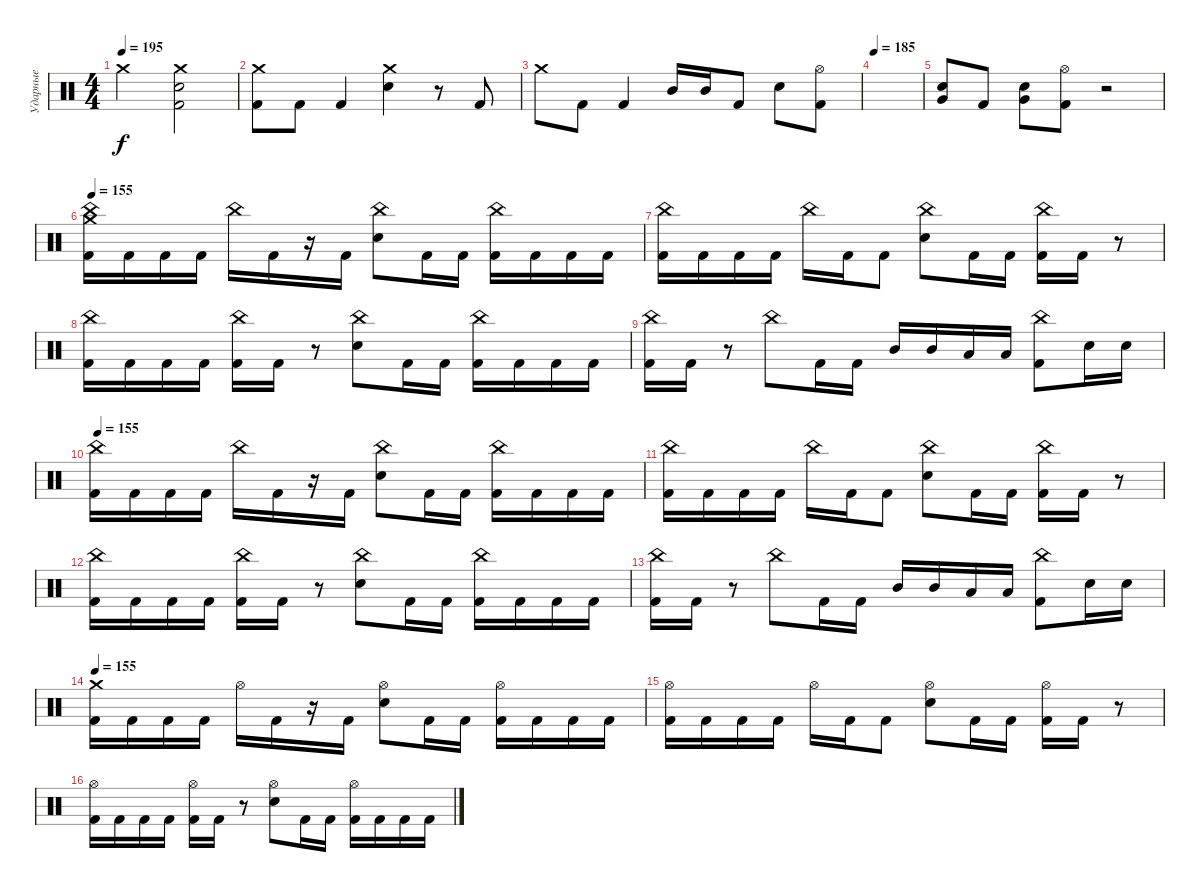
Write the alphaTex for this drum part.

\track ("Ударные" "Ударные") {instrument percussion}
\staff {score}
\articulation defaults
\ts (4 4)
\tempo 195
\clef neutral
\ks c "Crash medium (hit)".2{dy f}
("Crash medium (hit)" "Electric Snare (hit)" "Kick (hit) 2").2 |
("Crash medium (hit)" "Kick (hit) 2").8 "Kick (hit) 2".8 "Kick (hit) 2".4 ("Crash medium (hit)" "Electric Snare (hit)").4 r.8 "Kick (hit) 2".8 |
"Crash medium (hit)".8 "Kick (hit) 2".8 "Kick (hit) 2".4 "Mid Tom (hit)".16 "Mid Tom (hit)".16 "Kick (hit) 2".8 "Electric Snare (hit)".8 ("Hi-Hat (open)" "Kick (hit) 2").8 |
\tempo 185
|
("Electric Snare (hit)" "Very Low Tom (hit)").8 "Kick (hit) 2".8 ("Electric Snare (hit)" "Very Low Tom (hit)").8 ("Hi-Hat (open)" "Kick (hit) 2").8 r.2 |
\tempo 155
("Crash medium (hit)" "China (hit)" "Kick (hit) 2").16 "Kick (hit) 2".16 "Kick (hit) 2".16 "Kick (hit) 2".16 "China (hit)".16 "Kick (hit) 2".16 r.16 "Kick (hit) 2".16 ("China (hit)" "Electric Snare (hit)").8 "Kick (hit) 2".16 "Kick (hit) 2".16 ("China (hit)" "Kick (hit) 2").16 "Kick (hit) 2".16 "Kick (hit) 2".16 "Kick (hit) 2".16 |
("China (hit)" "Kick (hit) 2").16 "Kick (hit) 2".16 "Kick (hit) 2".16 "Kick (hit) 2".16 "China (hit)".16 "Kick (hit) 2".16 "Kick (hit) 2".8 ("China (hit)" "Electric Snare (hit)").8 "Kick (hit) 2".16 "Kick (hit) 2".16 ("China (hit)" "Kick (hit) 2").16 "Kick (hit) 2".16 r.8 |
("China (hit)" "Kick (hit) 2").16 "Kick (hit) 2".16 "Kick (hit) 2".16 "Kick (hit) 2".16 ("China (hit)" "Kick (hit) 2").16 "Kick (hit) 2".16 r.8 ("China (hit)" "Electric Snare (hit)").8 "Kick (hit) 2".16 "Kick (hit) 2".16 ("China (hit)" "Kick (hit) 2").16 "Kick (hit) 2".16 "Kick (hit) 2".16 "Kick (hit) 2".16 |
("China (hit)" "Kick (hit) 2").16 "Kick (hit) 2".16 r.8 "China (hit)".8 "Kick (hit) 2".16 "Kick (hit) 2".16 "Mid Tom (hit)".16 "Mid Tom (hit)".16 "Low Tom (hit)".16 "Low Tom (hit)".16 ("China (hit)" "Kick (hit) 2").8 "Electric Snare (hit)".16 "Electric Snare (hit)".16 |
\tempo 155
("China (hit)" "Kick (hit) 2").16 "Kick (hit) 2".16 "Kick (hit) 2".16 "Kick (hit) 2".16 "China (hit)".16 "Kick (hit) 2".16 r.16 "Kick (hit) 2".16 ("China (hit)" "Electric Snare (hit)").8 "Kick (hit) 2".16 "Kick (hit) 2".16 ("China (hit)" "Kick (hit) 2").16 "Kick (hit) 2".16 "Kick (hit) 2".16 "Kick (hit) 2".16 |
("China (hit)" "Kick (hit) 2").16 "Kick (hit) 2".16 "Kick (hit) 2".16 "Kick (hit) 2".16 "China (hit)".16 "Kick (hit) 2".16 "Kick (hit) 2".8 ("China (hit)" "Electric Snare (hit)").8 "Kick (hit) 2".16 "Kick (hit) 2".16 ("China (hit)" "Kick (hit) 2").16 "Kick (hit) 2".16 r.8 |
("China (hit)" "Kick (hit) 2").16 "Kick (hit) 2".16 "Kick (hit) 2".16 "Kick (hit) 2".16 ("China (hit)" "Kick (hit) 2").16 "Kick (hit) 2".16 r.8 ("China (hit)" "Electric Snare (hit)").8 "Kick (hit) 2".16 "Kick (hit) 2".16 ("China (hit)" "Kick (hit) 2").16 "Kick (hit) 2".16 "Kick (hit) 2".16 "Kick (hit) 2".16 |
("China (hit)" "Kick (hit) 2").16 "Kick (hit) 2".16 r.8 "China (hit)".8 "Kick (hit) 2".16 "Kick (hit) 2".16 "Mid Tom (hit)".16 "Mid Tom (hit)".16 "Low Tom (hit)".16 "Low Tom (hit)".16 ("China (hit)" "Kick (hit) 2").8 "Electric Snare (hit)".16 "Electric Snare (hit)".16 |
\tempo 155
("Crash medium (hit)" "Kick (hit) 2").16 "Kick (hit) 2".16 "Kick (hit) 2".16 "Kick (hit) 2".16 "Hi-Hat (open)".16 "Kick (hit) 2".16 r.16 "Kick (hit) 2".16 ("Hi-Hat (open)" "Electric Snare (hit)").8 "Kick (hit) 2".16 "Kick (hit) 2".16 ("Hi-Hat (open)" "Kick (hit) 2").16 "Kick (hit) 2".16 "Kick (hit) 2".16 "Kick (hit) 2".16 |
("Hi-Hat (open)" "Kick (hit) 2").16 "Kick (hit) 2".16 "Kick (hit) 2".16 "Kick (hit) 2".16 "Hi-Hat (open)".16 "Kick (hit) 2".16 "Kick (hit) 2".8 ("Hi-Hat (open)" "Electric Snare (hit)").8 "Kick (hit) 2".16 "Kick (hit) 2".16 ("Hi-Hat (open)" "Kick (hit) 2").16 "Kick (hit) 2".16 r.8 |
("Hi-Hat (open)" "Kick (hit) 2").16 "Kick (hit) 2".16 "Kick (hit) 2".16 "Kick (hit) 2".16 ("Hi-Hat (open)" "Kick (hit) 2").16 "Kick (hit) 2".16 r.8 ("Hi-Hat (open)" "Electric Snare (hit)").8 "Kick (hit) 2".16 "Kick (hit) 2".16 ("Hi-Hat (open)" "Kick (hit) 2").16 "Kick (hit) 2".16 "Kick (hit) 2".16 "Kick (hit) 2".16
